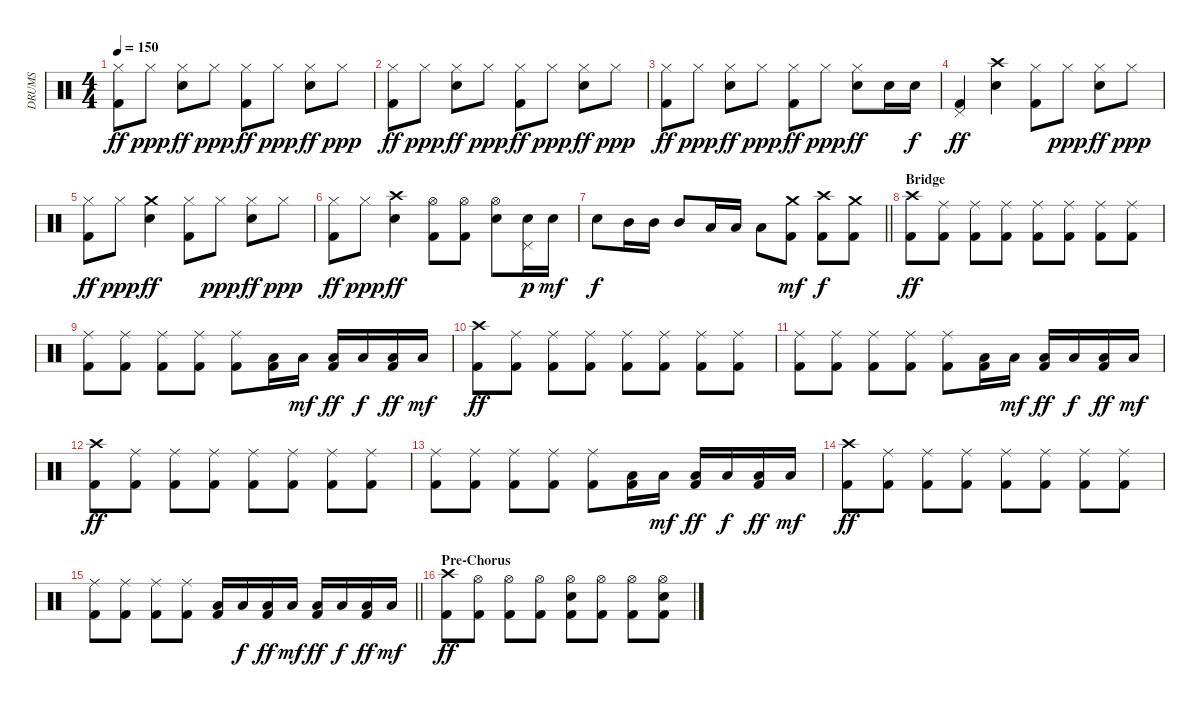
\track ("DRUMS" "DRUMS") {instrument percussion}
\staff {score}
\articulation defaults
\ts (4 4)
\tempo 150
\clef neutral
\ks c
("Hi-Hat (closed)" "Kick (hit) 2").8{dy ff} "Hi-Hat (closed)".8{dy ppp} ("Hi-Hat (closed)" "Snare (hit) 2").8{dy ff} "Hi-Hat (closed)".8{dy ppp} ("Hi-Hat (closed)" "Kick (hit) 2").8{dy ff} "Hi-Hat (closed)".8{dy ppp} ("Hi-Hat (closed)" "Snare (hit) 2").8{dy ff} "Hi-Hat (closed)".8{dy ppp} |
("Hi-Hat (closed)" "Kick (hit) 2").8{dy ff} "Hi-Hat (closed)".8{dy ppp} ("Hi-Hat (closed)" "Snare (hit) 2").8{dy ff} "Hi-Hat (closed)".8{dy ppp} ("Hi-Hat (closed)" "Kick (hit) 2").8{dy ff} "Hi-Hat (closed)".8{dy ppp} ("Hi-Hat (closed)" "Snare (hit) 2").8{dy ff} "Hi-Hat (closed)".8{dy ppp} |
("Hi-Hat (closed)" "Kick (hit) 2").8{dy ff} "Hi-Hat (closed)".8{dy ppp} ("Hi-Hat (closed)" "Snare (hit) 2").8{dy ff} "Hi-Hat (closed)".8{dy ppp} ("Hi-Hat (closed)" "Kick (hit) 2").8{dy ff} "Hi-Hat (closed)".8{dy ppp} ("Hi-Hat (closed)" "Snare (hit) 2").8{dy ff} "Electric Snare (hit)".16 "Snare (hit) 2".16{dy f} |
("Pedal Hi-Hat (hit)" "Kick (hit) 2").4{dy ff} ("Crash high (hit)" "Snare (hit) 2").4 ("Hi-Hat (closed)" "Kick (hit) 2").8 "Hi-Hat (closed)".8{dy ppp} ("Hi-Hat (closed)" "Snare (hit) 2").8{dy ff} "Hi-Hat (closed)".8{dy ppp} |
("Hi-Hat (closed)" "Kick (hit) 2").8{dy ff} "Hi-Hat (closed)".8{dy ppp} ("Crash medium (hit)" "Snare (hit) 2").4{dy ff} ("Hi-Hat (closed)" "Kick (hit) 2").8 "Hi-Hat (closed)".8{dy ppp} ("Hi-Hat (closed)" "Snare (hit) 2").8{dy ff} "Hi-Hat (closed)".8{dy ppp} |
("Hi-Hat (closed)" "Kick (hit) 2").8{dy ff} "Hi-Hat (closed)".8{dy ppp} ("Crash high (hit)" "Snare (hit) 2").4{dy ff} ("Hi-Hat (open)" "Kick (hit) 2").8 ("Hi-Hat (open)" "Kick (hit) 2").8 ("Hi-Hat (open)" "Snare (hit) 2").8 ("Pedal Hi-Hat (hit)" "Electric Snare (hit)").16{dy p} "Snare (hit) 2".16{dy mf} |
\barLineRight lightlight "Electric Snare (hit)".8{dy f} "Mid Tom (hit)".16 "Mid Tom (hit)".16 "Mid Tom (hit)".8 "Low Tom (hit)".16 "Low Tom (hit)".16 "Low Tom (hit)".8
("Crash medium (hit)" "Kick (hit) 2").8{dy mf} ("Crash high (hit)" "Kick (hit) 2").8{dy f} ("Crash medium (hit)" "Kick (hit) 2").8 |
\section ("" "Bridge")
("Crash high (hit)" "Kick (hit) 2").8{dy ff} ("Ride (middle)" "Kick (hit) 2").8 ("Ride (middle)" "Kick (hit) 2").8 ("Ride (middle)" "Kick (hit) 2").8 ("Ride (middle)" "Kick (hit) 2").8 ("Ride (middle)" "Kick (hit) 2").8 ("Ride (middle)" "Kick (hit) 2").8 ("Ride (middle)" "Kick (hit) 2").8 |
("Ride (middle)" "Kick (hit) 2").8 ("Ride (middle)" "Kick (hit) 2").8 ("Ride (middle)" "Kick (hit) 2").8 ("Ride (middle)" "Kick (hit) 2").8 ("Ride (middle)" "Kick (hit) 2").8 ("Low Tom (hit)" "Kick (hit) 2").16 "Low Tom (hit)".16{dy mf} ("Low Tom (hit)" "Kick (hit) 2").16{dy ff} "Low Tom (hit)".16{dy f} ("Low Tom (hit)" "Kick (hit) 2").16{dy ff} "Low Tom (hit)".16{dy mf} |
("Crash high (hit)" "Kick (hit) 2").8{dy ff} ("Ride (middle)" "Kick (hit) 2").8 ("Ride (middle)" "Kick (hit) 2").8 ("Ride (middle)" "Kick (hit) 2").8 ("Ride (middle)" "Kick (hit) 2").8 ("Ride (middle)" "Kick (hit) 2").8 ("Ride (middle)" "Kick (hit) 2").8 ("Ride (middle)" "Kick (hit) 2").8 |
("Ride (middle)" "Kick (hit) 2").8 ("Ride (middle)" "Kick (hit) 2").8 ("Ride (middle)" "Kick (hit) 2").8 ("Ride (middle)" "Kick (hit) 2").8 ("Ride (middle)" "Kick (hit) 2").8 ("Low Tom (hit)" "Kick (hit) 2").16 "Low Tom (hit)".16{dy mf} ("Low Tom (hit)" "Kick (hit) 2").16{dy ff} "Low Tom (hit)".16{dy f} ("Low Tom (hit)" "Kick (hit) 2").16{dy ff} "Low Tom (hit)".16{dy mf} |
("Crash high (hit)" "Kick (hit) 2").8{dy ff} ("Ride (middle)" "Kick (hit) 2").8 ("Ride (middle)" "Kick (hit) 2").8 ("Ride (middle)" "Kick (hit) 2").8 ("Ride (middle)" "Kick (hit) 2").8 ("Ride (middle)" "Kick (hit) 2").8 ("Ride (middle)" "Kick (hit) 2").8 ("Ride (middle)" "Kick (hit) 2").8 |
("Ride (middle)" "Kick (hit) 2").8 ("Ride (middle)" "Kick (hit) 2").8 ("Ride (middle)" "Kick (hit) 2").8 ("Ride (middle)" "Kick (hit) 2").8 ("Ride (middle)" "Kick (hit) 2").8 ("Low Tom (hit)" "Kick (hit) 2").16 "Low Tom (hit)".16{dy mf} ("Low Tom (hit)" "Kick (hit) 2").16{dy ff} "Low Tom (hit)".16{dy f} ("Low Tom (hit)" "Kick (hit) 2").16{dy ff} "Low Tom (hit)".16{dy mf} |
("Crash high (hit)" "Kick (hit) 2").8{dy ff} ("Ride (middle)" "Kick (hit) 2").8 ("Ride (middle)" "Kick (hit) 2").8 ("Ride (middle)" "Kick (hit) 2").8 ("Ride (middle)" "Kick (hit) 2").8 ("Ride (middle)" "Kick (hit) 2").8 ("Ride (middle)" "Kick (hit) 2").8 ("Ride (middle)" "Kick (hit) 2").8 |
\barLineRight lightlight
("Ride (middle)" "Kick (hit) 2").8 ("Ride (middle)" "Kick (hit) 2").8 ("Ride (middle)" "Kick (hit) 2").8 ("Ride (middle)" "Kick (hit) 2").8 ("Low Tom (hit)" "Kick (hit) 2").16 "Low Tom (hit)".16{dy f} ("Low Tom (hit)" "Kick (hit) 2").16{dy ff} "Low Tom (hit)".16{dy mf} ("Low Tom (hit)" "Kick (hit) 2").16{dy ff} "Low Tom (hit)".16{dy f} ("Low Tom (hit)" "Kick (hit) 2").16{dy ff} "Low Tom (hit)".16{dy mf} |
\section ("" "Pre-Chorus")
("Crash high (hit)" "Kick (hit) 2").8{dy ff} ("Hi-Hat (open)" "Kick (hit) 2").8 ("Hi-Hat (open)" "Kick (hit) 2").8 ("Hi-Hat (open)" "Kick (hit) 2").8 ("Hi-Hat (open)" "Snare (hit) 2" "Kick (hit) 2").8 ("Hi-Hat (open)" "Kick (hit) 2").8 ("Hi-Hat (open)" "Kick (hit) 2").8 ("Hi-Hat (open)" "Snare (hit) 2" "Kick (hit) 2").8
